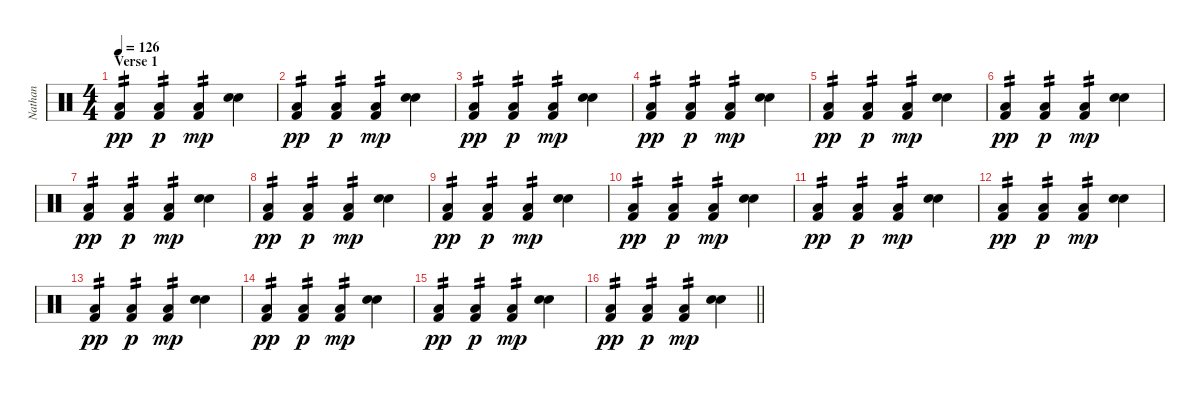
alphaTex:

\track ("Nathan" "Nathan") {instrument percussion}
\staff {score}
\articulation defaults
\ts (4 4)
\section ("" "Verse 1")
\tempo 126
\clef neutral
\ks c
("Kick (hit) 2" "Low Tom (hit)").4{tp 2 dy pp} ("Kick (hit) 2" "Low Tom (hit)").4{tp 2 dy p} ("Kick (hit) 2" "Low Tom (hit)").4{tp 2 dy mp} ("Snare (hit) 2" "Electric Snare (hit)").4 |
("Kick (hit) 2" "Low Tom (hit)").4{tp 2 dy pp} ("Kick (hit) 2" "Low Tom (hit)").4{tp 2 dy p} ("Kick (hit) 2" "Low Tom (hit)").4{tp 2 dy mp} ("Snare (hit) 2" "Electric Snare (hit)").4 |
("Kick (hit) 2" "Low Tom (hit)").4{tp 2 dy pp} ("Kick (hit) 2" "Low Tom (hit)").4{tp 2 dy p} ("Kick (hit) 2" "Low Tom (hit)").4{tp 2 dy mp} ("Snare (hit) 2" "Electric Snare (hit)").4 |
("Kick (hit) 2" "Low Tom (hit)").4{tp 2 dy pp} ("Kick (hit) 2" "Low Tom (hit)").4{tp 2 dy p} ("Kick (hit) 2" "Low Tom (hit)").4{tp 2 dy mp} ("Snare (hit) 2" "Electric Snare (hit)").4 |
("Kick (hit) 2" "Low Tom (hit)").4{tp 2 dy pp} ("Kick (hit) 2" "Low Tom (hit)").4{tp 2 dy p} ("Kick (hit) 2" "Low Tom (hit)").4{tp 2 dy mp} ("Snare (hit) 2" "Electric Snare (hit)").4 |
("Kick (hit) 2" "Low Tom (hit)").4{tp 2 dy pp} ("Kick (hit) 2" "Low Tom (hit)").4{tp 2 dy p} ("Kick (hit) 2" "Low Tom (hit)").4{tp 2 dy mp} ("Snare (hit) 2" "Electric Snare (hit)").4 |
("Kick (hit) 2" "Low Tom (hit)").4{tp 2 dy pp} ("Kick (hit) 2" "Low Tom (hit)").4{tp 2 dy p} ("Kick (hit) 2" "Low Tom (hit)").4{tp 2 dy mp} ("Snare (hit) 2" "Electric Snare (hit)").4 |
("Kick (hit) 2" "Low Tom (hit)").4{tp 2 dy pp} ("Kick (hit) 2" "Low Tom (hit)").4{tp 2 dy p} ("Kick (hit) 2" "Low Tom (hit)").4{tp 2 dy mp} ("Snare (hit) 2" "Electric Snare (hit)").4 |
("Kick (hit) 2" "Low Tom (hit)").4{tp 2 dy pp} ("Kick (hit) 2" "Low Tom (hit)").4{tp 2 dy p} ("Kick (hit) 2" "Low Tom (hit)").4{tp 2 dy mp} ("Snare (hit) 2" "Electric Snare (hit)").4 |
("Kick (hit) 2" "Low Tom (hit)").4{tp 2 dy pp} ("Kick (hit) 2" "Low Tom (hit)").4{tp 2 dy p} ("Kick (hit) 2" "Low Tom (hit)").4{tp 2 dy mp} ("Snare (hit) 2" "Electric Snare (hit)").4 |
("Kick (hit) 2" "Low Tom (hit)").4{tp 2 dy pp} ("Kick (hit) 2" "Low Tom (hit)").4{tp 2 dy p} ("Kick (hit) 2" "Low Tom (hit)").4{tp 2 dy mp} ("Snare (hit) 2" "Electric Snare (hit)").4 |
("Kick (hit) 2" "Low Tom (hit)").4{tp 2 dy pp} ("Kick (hit) 2" "Low Tom (hit)").4{tp 2 dy p} ("Kick (hit) 2" "Low Tom (hit)").4{tp 2 dy mp} ("Snare (hit) 2" "Electric Snare (hit)").4 |
("Kick (hit) 2" "Low Tom (hit)").4{tp 2 dy pp} ("Kick (hit) 2" "Low Tom (hit)").4{tp 2 dy p} ("Kick (hit) 2" "Low Tom (hit)").4{tp 2 dy mp} ("Snare (hit) 2" "Electric Snare (hit)").4 |
("Kick (hit) 2" "Low Tom (hit)").4{tp 2 dy pp} ("Kick (hit) 2" "Low Tom (hit)").4{tp 2 dy p} ("Kick (hit) 2" "Low Tom (hit)").4{tp 2 dy mp} ("Snare (hit) 2" "Electric Snare (hit)").4 |
("Kick (hit) 2" "Low Tom (hit)").4{tp 2 dy pp} ("Kick (hit) 2" "Low Tom (hit)").4{tp 2 dy p} ("Kick (hit) 2" "Low Tom (hit)").4{tp 2 dy mp} ("Snare (hit) 2" "Electric Snare (hit)").4 |
\barLineRight lightlight
("Kick (hit) 2" "Low Tom (hit)").4{tp 2 dy pp} ("Kick (hit) 2" "Low Tom (hit)").4{tp 2 dy p} ("Kick (hit) 2" "Low Tom (hit)").4{tp 2 dy mp} ("Snare (hit) 2" "Electric Snare (hit)").4
